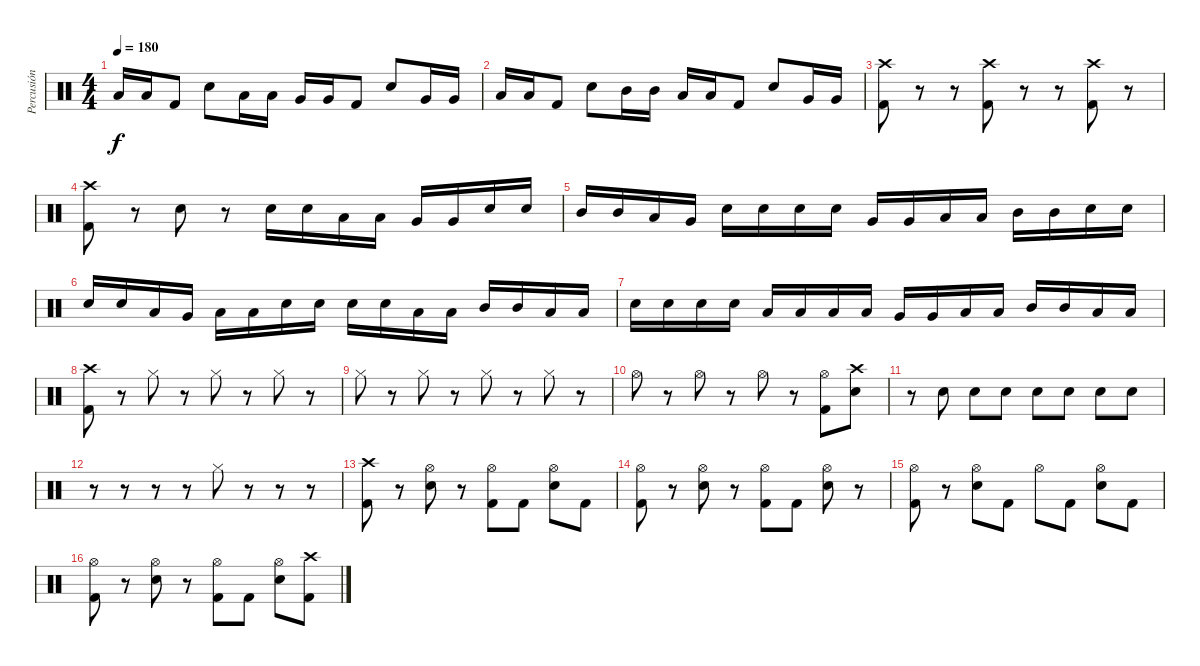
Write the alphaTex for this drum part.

\track ("Percusión" "Percusión") {instrument percussion}
\staff {score}
\articulation defaults
\ts (4 4)
\tempo 180
\clef neutral
\ks c "Low Floor Tom (hit)".16{dy f} "Low Floor Tom (hit)".16 "Kick (hit) 2".8 "Electric Snare (hit)".8 "Low Tom (hit)".16 "Low Tom (hit)".16 "Very Low Tom (hit)".16 "Very Low Tom (hit)".16 "Kick (hit) 2".8 "Electric Snare (hit)".8 "Very Low Tom (hit)".16 "Very Low Tom (hit)".16
|
"Low Floor Tom (hit)".16 "Low Floor Tom (hit)".16 "Kick (hit) 2".8 "Electric Snare (hit)".8 "Mid Tom (hit)".16 "Mid Tom (hit)".16 "Low Tom (hit)".16 "Low Tom (hit)".16 "Kick (hit) 2".8 "Electric Snare (hit)".8 "Very Low Tom (hit)".16 "Very Low Tom (hit)".16 |
("Crash high (hit)" "Kick (hit) 2").8 r.8 r.8 ("Crash high (hit)" "Kick (hit) 2").8 r.8 r.8 ("Crash high (hit)" "Kick (hit) 2").8 r.8 |
("Crash high (hit)" "Kick (hit) 2").8 r.8 "Electric Snare (hit)".8 r.8 "Electric Snare (hit)".16 "Electric Snare (hit)".16 "Low Tom (hit)".16 "Low Tom (hit)".16 "Very Low Tom (hit)".16 "Very Low Tom (hit)".16 "Electric Snare (hit)".16 "Electric Snare (hit)".16 |
"Mid Tom (hit)".16 "Mid Tom (hit)".16 "Low Tom (hit)".16 "Very Low Tom (hit)".16 "Electric Snare (hit)".16 "Electric Snare (hit)".16 "Electric Snare (hit)".16 "Electric Snare (hit)".16 "Very Low Tom (hit)".16 "Very Low Tom (hit)".16 "Low Tom (hit)".16 "Low Tom (hit)".16 "Mid Tom (hit)".16 "Mid Tom (hit)".16 "Electric Snare (hit)".16 "Electric Snare (hit)".16 |
"Electric Snare (hit)".16 "Electric Snare (hit)".16 "Low Tom (hit)".16 "Very Low Tom (hit)".16 "Low Floor Tom (hit)".16 "Low Floor Tom (hit)".16 "Electric Snare (hit)".16 "Electric Snare (hit)".16 "Electric Snare (hit)".16 "Electric Snare (hit)".16 "Low Tom (hit)".16 "Low Tom (hit)".16 "Mid Tom (hit)".16 "Mid Tom (hit)".16 "Low Tom (hit)".16 "Low Tom (hit)".16 |
"Electric Snare (hit)".16 "Electric Snare (hit)".16 "Electric Snare (hit)".16 "Electric Snare (hit)".16 "Low Floor Tom (hit)".16 "Low Floor Tom (hit)".16 "Low Tom (hit)".16 "Low Tom (hit)".16 "Very Low Tom (hit)".16 "Very Low Tom (hit)".16 "Low Tom (hit)".16 "Low Tom (hit)".16 "Mid Tom (hit)".16 "Mid Tom (hit)".16 "Low Tom (hit)".16 "Low Tom (hit)".16 |
("Crash high (hit)" "Kick (hit) 2").8 r.8 "Hi-Hat (closed)".8 r.8 "Hi-Hat (closed)".8 r.8 "Hi-Hat (closed)".8 r.8 |
"Hi-Hat (closed)".8 r.8 "Hi-Hat (closed)".8 r.8 "Hi-Hat (closed)".8 r.8 "Hi-Hat (closed)".8 r.8 |
"Hi-Hat (open)".8 r.8 "Hi-Hat (open)".8 r.8 "Hi-Hat (open)".8 r.8 ("Hi-Hat (open)" "Kick (hit) 2").8 ("Crash high (hit)" "Electric Snare (hit)").8 |
r.8 "Electric Snare (hit)".8 "Electric Snare (hit)".8 "Electric Snare (hit)".8 "Electric Snare (hit)".8 "Electric Snare (hit)".8 "Electric Snare (hit)".8 "Electric Snare (hit)".8 |
r.8 r.8 r.8 r.8 "Hi-Hat (closed)".8 r.8 r.8 r.8 |
("Crash high (hit)" "Kick (hit) 2").8 r.8 ("Hi-Hat (open)" "Electric Snare (hit)").8 r.8 ("Hi-Hat (open)" "Kick (hit) 2").8 "Kick (hit) 2".8 ("Hi-Hat (open)" "Electric Snare (hit)").8 "Kick (hit) 2".8 |
("Hi-Hat (open)" "Kick (hit) 2").8 r.8 ("Hi-Hat (open)" "Electric Snare (hit)").8 r.8 ("Hi-Hat (open)" "Kick (hit) 2").8 "Kick (hit) 2".8 ("Hi-Hat (open)" "Electric Snare (hit)").8 r.8 |
("Hi-Hat (open)" "Kick (hit) 2").8 r.8 ("Hi-Hat (open)" "Electric Snare (hit)").8 "Kick (hit) 2".8 "Hi-Hat (open)".8 "Kick (hit) 2".8 ("Hi-Hat (open)" "Electric Snare (hit)").8 "Kick (hit) 2".8 |
("Hi-Hat (open)" "Kick (hit) 2").8 r.8 ("Hi-Hat (open)" "Electric Snare (hit)").8 r.8 ("Hi-Hat (open)" "Kick (hit) 2").8 "Kick (hit) 2".8 ("Hi-Hat (open)" "Electric Snare (hit)").8 ("Crash high (hit)" "Kick (hit) 2").8
